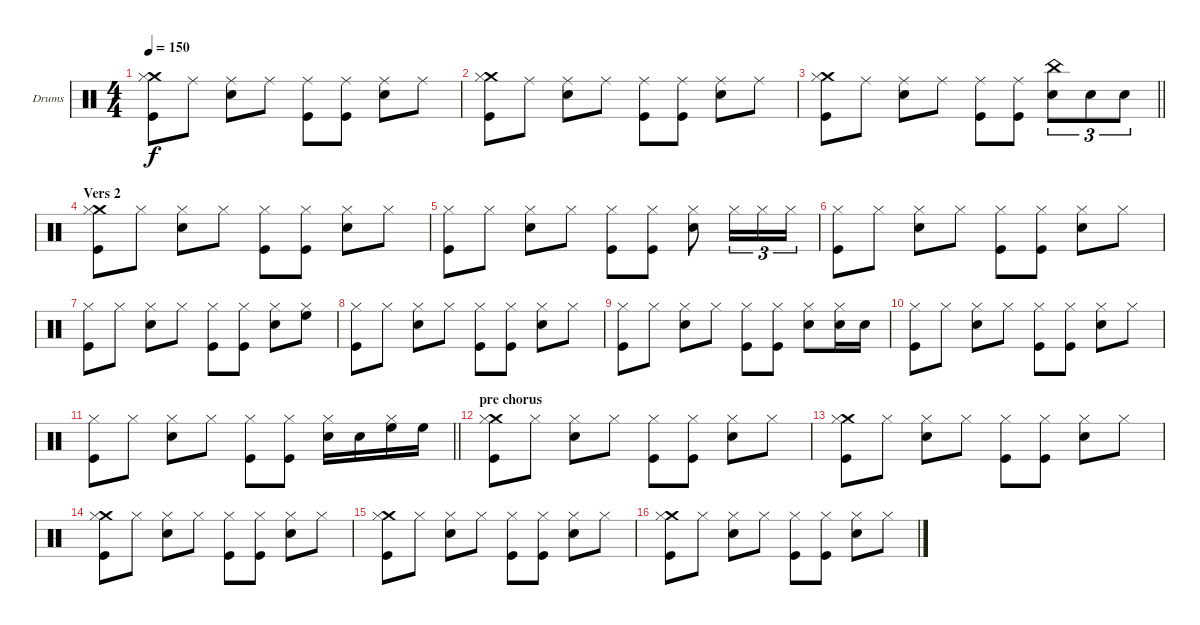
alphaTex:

\bracketExtendMode groupsimilarinstruments
\firstSystemTrackNameOrientation horizontal
\otherSystemsTrackNameOrientation horizontal
\track ("Drumkit" "Drums") {instrument percussion}
\staff {score}
\articulation defaults
\ts (4 4)
\tempo 150
\clef neutral
\ks c
("Crash medium (hit)" "Kick (hit)" "Hi-Hat (closed)").8{dy f} "Ride (middle)".8 ("Ride (middle)" "Snare (hit) 2").8 "Ride (middle)".8 ("Ride (middle)" "Kick (hit)").8 ("Ride (middle)" "Kick (hit)").8 ("Ride (middle)" "Snare (hit) 2").8 "Ride (middle)".8 |
("Crash medium (hit)" "Kick (hit)" "Hi-Hat (closed)").8 "Ride (middle)".8 ("Ride (middle)" "Snare (hit) 2").8 "Ride (middle)".8 ("Ride (middle)" "Kick (hit)").8 ("Ride (middle)" "Kick (hit)").8 ("Ride (middle)" "Snare (hit) 2").8 "Ride (middle)".8 |
\barLineRight lightlight
("Crash medium (hit)" "Kick (hit)" "Hi-Hat (closed)").8 "Ride (middle)".8 ("Ride (middle)" "Snare (hit) 2").8 "Ride (middle)".8 ("Ride (middle)" "Kick (hit)").8 ("Ride (middle)" "Kick (hit)").8 ("China (hit)" "Snare (hit) 2").8{tu (3 2)} "Snare (hit) 2".8{tu (3 2)} "Snare (hit) 2".8{tu (3 2)} |
\section ("" "Vers 2")
("Crash medium (hit)" "Kick (hit)" "Hi-Hat (closed)").8 "Hi-Hat (closed)".8 ("Snare (hit) 2" "Hi-Hat (closed)").8 "Hi-Hat (closed)".8 ("Kick (hit)" "Hi-Hat (closed)").8 ("Kick (hit)" "Hi-Hat (closed)").8 ("Snare (hit) 2" "Hi-Hat (closed)").8 "Hi-Hat (closed)".8 |
("Kick (hit)" "Hi-Hat (closed)").8 "Hi-Hat (closed)".8 ("Snare (hit) 2" "Hi-Hat (closed)").8 "Hi-Hat (closed)".8 ("Kick (hit)" "Hi-Hat (closed)").8 ("Kick (hit)" "Hi-Hat (closed)").8 ("Snare (hit) 2" "Hi-Hat (closed)").8 "Hi-Hat (closed)".16{tu (3 2)} "Hi-Hat (closed)".16{tu (3 2)} "Hi-Hat (closed)".16{tu (3 2)} |
("Hi-Hat (closed)" "Kick (hit)").8 "Hi-Hat (closed)".8 ("Snare (hit) 2" "Hi-Hat (closed)").8 "Hi-Hat (closed)".8 ("Kick (hit)" "Hi-Hat (closed)").8 ("Kick (hit)" "Hi-Hat (closed)").8 ("Snare (hit) 2" "Hi-Hat (closed)").8 "Hi-Hat (closed)".8 |
("Kick (hit)" "Hi-Hat (closed)").8 "Hi-Hat (closed)".8 ("Snare (hit) 2" "Hi-Hat (closed)").8 "Hi-Hat (closed)".8 ("Kick (hit)" "Hi-Hat (closed)").8 ("Kick (hit)" "Hi-Hat (closed)").8 ("Snare (hit) 2" "Hi-Hat (closed)").8 ("High Floor Tom (hit)" "Hi-Hat (closed)").8 |
("Kick (hit)" "Hi-Hat (closed)").8 "Hi-Hat (closed)".8 ("Snare (hit) 2" "Hi-Hat (closed)").8 "Hi-Hat (closed)".8 ("Kick (hit)" "Hi-Hat (closed)").8 ("Kick (hit)" "Hi-Hat (closed)").8 ("Snare (hit) 2" "Hi-Hat (closed)").8 "Hi-Hat (closed)".8 |
("Kick (hit)" "Hi-Hat (closed)").8 "Hi-Hat (closed)".8 ("Snare (hit) 2" "Hi-Hat (closed)").8 "Hi-Hat (closed)".8 ("Kick (hit)" "Hi-Hat (closed)").8 ("Kick (hit)" "Hi-Hat (closed)").8 ("Snare (hit) 2" "Hi-Hat (closed)").8 ("Snare (hit) 2" "Hi-Hat (closed)").16 "Snare (hit) 2".16 |
("Kick (hit)" "Hi-Hat (closed)").8 "Hi-Hat (closed)".8 ("Snare (hit) 2" "Hi-Hat (closed)").8 "Hi-Hat (closed)".8 ("Kick (hit)" "Hi-Hat (closed)").8 ("Kick (hit)" "Hi-Hat (closed)").8 ("Snare (hit) 2" "Hi-Hat (closed)").8 "Hi-Hat (closed)".8 |
\barLineRight lightlight
("Kick (hit)" "Hi-Hat (closed)").8 "Hi-Hat (closed)".8 ("Snare (hit) 2" "Hi-Hat (closed)").8 "Hi-Hat (closed)".8 ("Kick (hit)" "Hi-Hat (closed)").8 ("Kick (hit)" "Hi-Hat (closed)").8 ("Snare (hit) 2" "Hi-Hat (closed)").16 "Snare (hit) 2".16 ("High Floor Tom (hit)" "Hi-Hat (closed)").16 "High Floor Tom (hit)".16 |
\section ("" "pre chorus")
("Crash medium (hit)" "Kick (hit)" "Hi-Hat (closed)").8 "Hi-Hat (closed)".8 ("Snare (hit) 2" "Hi-Hat (closed)").8 "Hi-Hat (closed)".8 ("Kick (hit)" "Hi-Hat (closed)").8 ("Kick (hit)" "Hi-Hat (closed)").8 ("Snare (hit) 2" "Hi-Hat (closed)").8 "Hi-Hat (closed)".8 |
("Crash medium (hit)" "Kick (hit)" "Hi-Hat (closed)").8 "Hi-Hat (closed)".8 ("Snare (hit) 2" "Hi-Hat (closed)").8 "Hi-Hat (closed)".8 ("Kick (hit)" "Hi-Hat (closed)").8 ("Kick (hit)" "Hi-Hat (closed)").8 ("Snare (hit) 2" "Hi-Hat (closed)").8 "Hi-Hat (closed)".8 |
("Crash medium (hit)" "Kick (hit)" "Hi-Hat (closed)").8 "Hi-Hat (closed)".8 ("Snare (hit) 2" "Hi-Hat (closed)").8 "Hi-Hat (closed)".8 ("Kick (hit)" "Hi-Hat (closed)").8 ("Kick (hit)" "Hi-Hat (closed)").8 ("Snare (hit) 2" "Hi-Hat (closed)").8 "Hi-Hat (closed)".8 |
("Crash medium (hit)" "Kick (hit)" "Hi-Hat (closed)").8 "Hi-Hat (closed)".8 ("Snare (hit) 2" "Hi-Hat (closed)").8 "Hi-Hat (closed)".8 ("Kick (hit)" "Hi-Hat (closed)").8 ("Kick (hit)" "Hi-Hat (closed)").8 ("Snare (hit) 2" "Hi-Hat (closed)").8 "Hi-Hat (closed)".8 |
("Crash medium (hit)" "Kick (hit)" "Hi-Hat (closed)").8 "Hi-Hat (closed)".8 ("Snare (hit) 2" "Hi-Hat (closed)").8 "Hi-Hat (closed)".8 ("Kick (hit)" "Hi-Hat (closed)").8 ("Kick (hit)" "Hi-Hat (closed)").8 ("Snare (hit) 2" "Hi-Hat (closed)").8 "Hi-Hat (closed)".8
